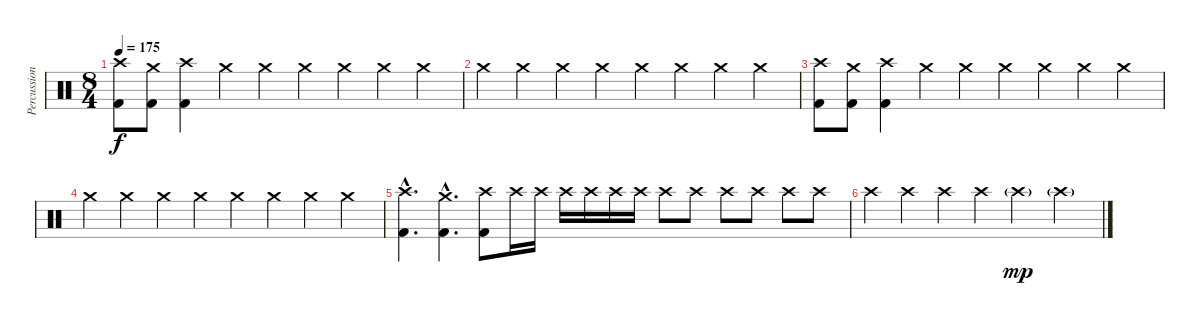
\track ("Percussion" "Percussion") {instrument percussion}
\staff {score}
\articulation defaults
\ts (8 4)
\tempo 175
\clef neutral
\ks c
("Kick (hit) 2" "Crash high (hit)").8{dy f} ("Kick (hit) 2" "Crash medium (hit)").8 ("Kick (hit) 2" "Crash high (hit)").4 "Crash medium (hit)".4 "Crash medium (hit)".4 "Crash medium (hit)".4 "Crash medium (hit)".4 "Crash medium (hit)".4 "Crash medium (hit)".4 |
"Crash medium (hit)".4 "Crash medium (hit)".4 "Crash medium (hit)".4 "Crash medium (hit)".4 "Crash medium (hit)".4 "Crash medium (hit)".4 "Crash medium (hit)".4 "Crash medium (hit)".4 |
("Kick (hit) 2" "Crash high (hit)").8 ("Kick (hit) 2" "Crash medium (hit)").8 ("Kick (hit) 2" "Crash high (hit)").4 "Crash medium (hit)".4 "Crash medium (hit)".4 "Crash medium (hit)".4 "Crash medium (hit)".4 "Crash medium (hit)".4 "Crash medium (hit)".4 |
"Crash medium (hit)".4 "Crash medium (hit)".4 "Crash medium (hit)".4 "Crash medium (hit)".4 "Crash medium (hit)".4 "Crash medium (hit)".4 "Crash medium (hit)".4 "Crash medium (hit)".4 |
("Kick (hit) 2"{hac} "Crash high (hit)"{hac}).4{d} ("Kick (hit) 2"{hac} "Crash medium (hit)"{hac}).4{d} ("Kick (hit) 2" "Crash high (hit)").8 "Crash high (hit)".16 "Crash high (hit)".16 "Crash high (hit)".16 "Crash high (hit)".16 "Crash high (hit)".16 "Crash high (hit)".16 "Crash high (hit)".8 "Crash high (hit)".8 "Crash high (hit)".8 "Crash high (hit)".8 "Crash high (hit)".8 "Crash high (hit)".8 |
"Crash high (hit)".4 "Crash high (hit)".4 "Crash high (hit)".4 "Crash high (hit)".4 "Crash high (hit)"{g}.2{dy mp} "Crash high (hit)"{g}.2
